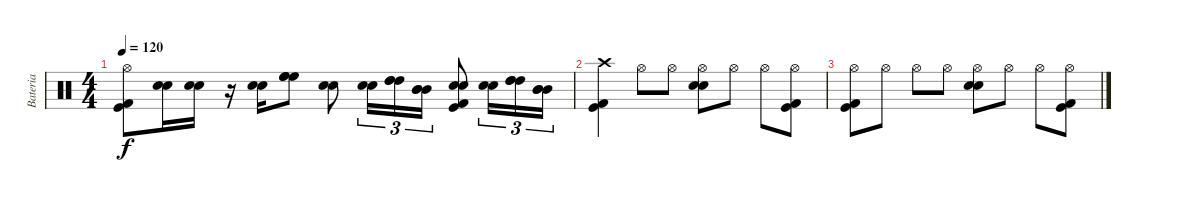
\track ("Bateria" "Bateria") {instrument percussion}
\staff {score}
\articulation defaults
\ts (4 4)
\tempo 120
\clef neutral
\ks c
("Hi-Hat (open)" "Kick (hit)" "Kick (hit) 2").8{dy f volume 5} ("Electric Snare (hit)" "Snare (hit) 2").16{volume 4} ("Electric Snare (hit)" "Snare (hit) 2").16 r.16 ("Electric Snare (hit)" "Snare (hit) 2").16 ("High Floor Tom (hit)" "High Floor Tom (hit)" "High Floor Tom (hit)").8 ("Electric Snare (hit)" "Snare (hit) 2").8 ("Electric Snare (hit)" "Snare (hit) 2").16{tu (3 2)} ("High Tom (hit)" "High Tom (hit)" "High Tom (hit)").16{tu (3 2)} ("Mid Tom (hit)" "Mid Tom (hit)" "Mid Tom (hit)").16{tu (3 2)} ("Electric Snare (hit)" "Snare (hit) 2" "Kick (hit) 2" "Kick (hit)").8 ("Electric Snare (hit)" "Snare (hit) 2").16{tu (3 2)} ("High Tom (hit)" "High Tom (hit)" "High Tom (hit)").16{tu (3 2)} ("Mid Tom (hit)" "Mid Tom (hit)" "Mid Tom (hit)").16{tu (3 2)} |
("Crash high (hit)" "Kick (hit)" "Kick (hit) 2").4{volume 4} "Hi-Hat (open)".8{volume 3} "Hi-Hat (open)".8{volume 2} ("Hi-Hat (open)" "Electric Snare (hit)" "Snare (hit) 2").8 "Hi-Hat (open)".8{volume 1} "Hi-Hat (open)".8 ("Hi-Hat (open)" "Kick (hit)" "Kick (hit) 2").8 |
("Hi-Hat (open)" "Kick (hit)" "Kick (hit) 2").8{volume 0} "Hi-Hat (open)".8 "Hi-Hat (open)".8 "Hi-Hat (open)".8 ("Hi-Hat (open)" "Electric Snare (hit)" "Snare (hit) 2").8 "Hi-Hat (open)".8 "Hi-Hat (open)".8 ("Hi-Hat (open)" "Kick (hit)" "Kick (hit) 2").8
